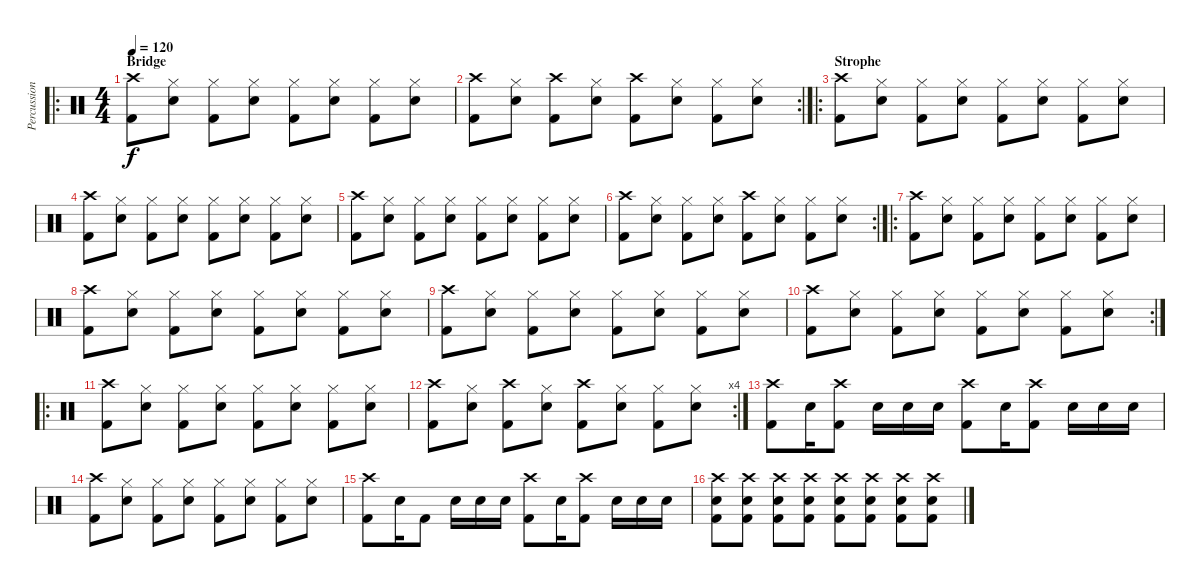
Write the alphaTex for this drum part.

\track ("Percussion" "Percussion") {instrument percussion}
\staff {score}
\articulation defaults
\ro
\ts (4 4)
\section ("" "Bridge")
\tempo 120
\clef neutral
\ks c
("Crash high (hit)" "Kick (hit) 2").8{dy f} ("Hi-Hat (closed)" "Snare (hit) 2").8 ("Hi-Hat (closed)" "Kick (hit) 2").8 ("Hi-Hat (closed)" "Snare (hit) 2").8 ("Hi-Hat (closed)" "Kick (hit) 2").8 ("Hi-Hat (closed)" "Snare (hit) 2").8 ("Hi-Hat (closed)" "Kick (hit) 2").8 ("Hi-Hat (closed)" "Snare (hit) 2").8 |
\rc 2
("Crash high (hit)" "Kick (hit) 2").8 ("Hi-Hat (closed)" "Snare (hit) 2").8 ("Crash high (hit)" "Kick (hit) 2").8 ("Hi-Hat (closed)" "Snare (hit) 2").8 ("Crash high (hit)" "Kick (hit) 2").8 ("Hi-Hat (closed)" "Snare (hit) 2").8 ("Hi-Hat (closed)" "Kick (hit) 2").8 ("Hi-Hat (closed)" "Snare (hit) 2").8 |
\ro
\section ("" "Strophe")
("Crash high (hit)" "Kick (hit) 2").8 ("Hi-Hat (closed)" "Snare (hit) 2").8 ("Hi-Hat (closed)" "Kick (hit) 2").8 ("Hi-Hat (closed)" "Snare (hit) 2").8 ("Hi-Hat (closed)" "Kick (hit) 2").8 ("Hi-Hat (closed)" "Snare (hit) 2").8 ("Hi-Hat (closed)" "Kick (hit) 2").8 ("Hi-Hat (closed)" "Snare (hit) 2").8 |
("Crash high (hit)" "Kick (hit) 2").8 ("Hi-Hat (closed)" "Snare (hit) 2").8 ("Hi-Hat (closed)" "Kick (hit) 2").8 ("Hi-Hat (closed)" "Snare (hit) 2").8 ("Hi-Hat (closed)" "Kick (hit) 2").8 ("Hi-Hat (closed)" "Snare (hit) 2").8 ("Hi-Hat (closed)" "Kick (hit) 2").8 ("Hi-Hat (closed)" "Snare (hit) 2").8 |
("Crash high (hit)" "Kick (hit) 2").8 ("Hi-Hat (closed)" "Snare (hit) 2").8 ("Hi-Hat (closed)" "Kick (hit) 2").8 ("Hi-Hat (closed)" "Snare (hit) 2").8 ("Hi-Hat (closed)" "Kick (hit) 2").8 ("Hi-Hat (closed)" "Snare (hit) 2").8 ("Hi-Hat (closed)" "Kick (hit) 2").8 ("Hi-Hat (closed)" "Snare (hit) 2").8 |
\rc 2
("Crash high (hit)" "Kick (hit) 2").8 ("Hi-Hat (closed)" "Snare (hit) 2").8 ("Hi-Hat (closed)" "Kick (hit) 2").8 ("Hi-Hat (closed)" "Snare (hit) 2").8 ("Crash high (hit)" "Kick (hit) 2").8 ("Hi-Hat (closed)" "Snare (hit) 2").8 ("Hi-Hat (closed)" "Kick (hit) 2").8 ("Hi-Hat (closed)" "Snare (hit) 2").8 |
\ro
("Crash high (hit)" "Kick (hit) 2").8 ("Hi-Hat (closed)" "Snare (hit) 2").8 ("Hi-Hat (closed)" "Kick (hit) 2").8 ("Hi-Hat (closed)" "Snare (hit) 2").8 ("Hi-Hat (closed)" "Kick (hit) 2").8 ("Hi-Hat (closed)" "Snare (hit) 2").8 ("Hi-Hat (closed)" "Kick (hit) 2").8 ("Hi-Hat (closed)" "Snare (hit) 2").8 |
("Crash high (hit)" "Kick (hit) 2").8 ("Hi-Hat (closed)" "Snare (hit) 2").8 ("Hi-Hat (closed)" "Kick (hit) 2").8 ("Hi-Hat (closed)" "Snare (hit) 2").8 ("Hi-Hat (closed)" "Kick (hit) 2").8 ("Hi-Hat (closed)" "Snare (hit) 2").8 ("Hi-Hat (closed)" "Kick (hit) 2").8 ("Hi-Hat (closed)" "Snare (hit) 2").8 |
("Crash high (hit)" "Kick (hit) 2").8 ("Hi-Hat (closed)" "Snare (hit) 2").8 ("Hi-Hat (closed)" "Kick (hit) 2").8 ("Hi-Hat (closed)" "Snare (hit) 2").8 ("Hi-Hat (closed)" "Kick (hit) 2").8 ("Hi-Hat (closed)" "Snare (hit) 2").8 ("Hi-Hat (closed)" "Kick (hit) 2").8 ("Hi-Hat (closed)" "Snare (hit) 2").8 |
\rc 2
("Crash high (hit)" "Kick (hit) 2").8 ("Hi-Hat (closed)" "Snare (hit) 2").8 ("Hi-Hat (closed)" "Kick (hit) 2").8 ("Hi-Hat (closed)" "Snare (hit) 2").8 ("Hi-Hat (closed)" "Kick (hit) 2").8 ("Hi-Hat (closed)" "Snare (hit) 2").8 ("Hi-Hat (closed)" "Kick (hit) 2").8 ("Hi-Hat (closed)" "Snare (hit) 2").8 |
\ro
("Crash high (hit)" "Kick (hit) 2").8 ("Hi-Hat (closed)" "Snare (hit) 2").8 ("Hi-Hat (closed)" "Kick (hit) 2").8 ("Hi-Hat (closed)" "Snare (hit) 2").8 ("Hi-Hat (closed)" "Kick (hit) 2").8 ("Hi-Hat (closed)" "Snare (hit) 2").8 ("Hi-Hat (closed)" "Kick (hit) 2").8 ("Hi-Hat (closed)" "Snare (hit) 2").8 |
\rc 4
("Crash high (hit)" "Kick (hit) 2").8 ("Hi-Hat (closed)" "Snare (hit) 2").8 ("Crash high (hit)" "Kick (hit) 2").8 ("Hi-Hat (closed)" "Snare (hit) 2").8 ("Crash high (hit)" "Kick (hit) 2").8 ("Hi-Hat (closed)" "Snare (hit) 2").8 ("Hi-Hat (closed)" "Kick (hit) 2").8 ("Hi-Hat (closed)" "Snare (hit) 2").8 |
("Crash high (hit)" "Kick (hit) 2").8 "Snare (hit) 2".16 ("Crash high (hit)" "Kick (hit) 2").8 "Snare (hit) 2".16 "Snare (hit) 2".16 "Snare (hit) 2".16 ("Crash high (hit)" "Kick (hit) 2").8 "Snare (hit) 2".16 ("Crash high (hit)" "Kick (hit) 2").8 "Snare (hit) 2".16 "Snare (hit) 2".16 "Snare (hit) 2".16 |
("Crash high (hit)" "Kick (hit) 2").8 ("Hi-Hat (closed)" "Snare (hit) 2").8 ("Hi-Hat (closed)" "Kick (hit) 2").8 ("Hi-Hat (closed)" "Snare (hit) 2").8 ("Hi-Hat (closed)" "Kick (hit) 2").8 ("Hi-Hat (closed)" "Snare (hit) 2").8 ("Hi-Hat (closed)" "Kick (hit) 2").8 ("Hi-Hat (closed)" "Snare (hit) 2").8 |
("Crash high (hit)" "Kick (hit) 2").8 "Snare (hit) 2".16 "Kick (hit) 2".8 "Snare (hit) 2".16 "Snare (hit) 2".16 "Snare (hit) 2".16 ("Crash high (hit)" "Kick (hit) 2").8 "Snare (hit) 2".16 ("Crash high (hit)" "Kick (hit) 2").8 "Snare (hit) 2".16 "Snare (hit) 2".16 "Snare (hit) 2".16 |
("Crash high (hit)" "Snare (hit) 2" "Kick (hit) 2").8 ("Crash high (hit)" "Snare (hit) 2" "Kick (hit) 2").8 ("Crash high (hit)" "Snare (hit) 2" "Kick (hit) 2").8 ("Crash high (hit)" "Snare (hit) 2" "Kick (hit) 2").8 ("Crash high (hit)" "Snare (hit) 2" "Kick (hit) 2").8 ("Crash high (hit)" "Snare (hit) 2" "Kick (hit) 2").8 ("Crash high (hit)" "Snare (hit) 2" "Kick (hit) 2").8 ("Crash high (hit)" "Snare (hit) 2" "Kick (hit) 2").8
